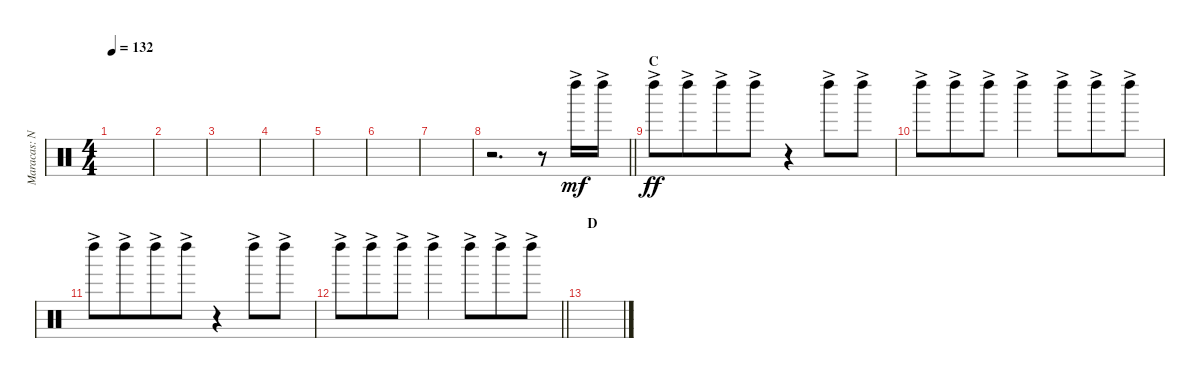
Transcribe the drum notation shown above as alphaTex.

\track ("Maracas: Nigel Ollson" "Maracas: N") {instrument percussion}
\staff {score}
\articulation defaults
\ts (4 4)
\tempo 132
\clef neutral
\ks c
|
|
|
|
|
|
|
\barLineRight lightlight
r.2{d} r.8 "Left Maraca (hit)"{ac}.16{dy mf} "Left Maraca (hit)"{ac}.16 |
\section ("" "C")
"Left Maraca (hit)"{ac}.8{dy ff} "Left Maraca (hit)"{ac}.8{beam merge} "Left Maraca (hit)"{ac}.8 "Left Maraca (hit)"{ac}.8 r.4 "Left Maraca (hit)"{ac}.8 "Left Maraca (hit)"{ac}.8 |
"Left Maraca (hit)"{ac}.8 "Left Maraca (hit)"{ac}.8{beam merge} "Left Maraca (hit)"{ac}.8 "Left Maraca (hit)"{ac}.4 "Left Maraca (hit)"{ac}.8{beam merge} "Left Maraca (hit)"{ac}.8 "Left Maraca (hit)"{ac}.8 |
"Left Maraca (hit)"{ac}.8 "Left Maraca (hit)"{ac}.8{beam merge} "Left Maraca (hit)"{ac}.8 "Left Maraca (hit)"{ac}.8 r.4 "Left Maraca (hit)"{ac}.8 "Left Maraca (hit)"{ac}.8 |
\barLineRight lightlight "Left Maraca (hit)"{ac}.8 "Left Maraca (hit)"{ac}.8{beam merge} "Left Maraca (hit)"{ac}.8 "Left Maraca (hit)"{ac}.4 "Left Maraca (hit)"{ac}.8{beam merge} "Left Maraca (hit)"{ac}.8 "Left Maraca (hit)"{ac}.8
|
\section ("" "D")
